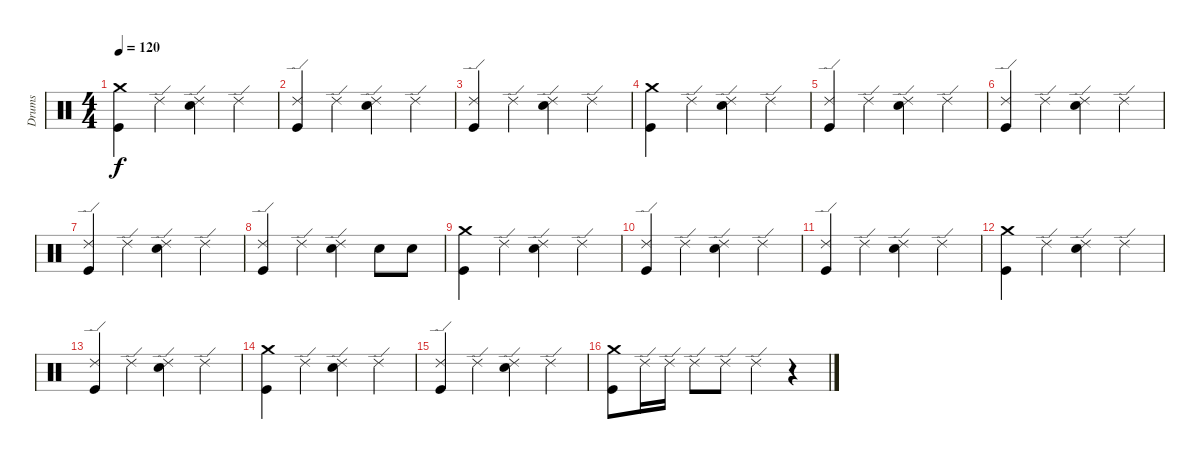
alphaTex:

\track ("Drums" "Drums") {instrument percussion}
\staff {score}
\articulation defaults
\ts (4 4)
\tempo 120
\clef neutral
\ks c
("Crash medium (hit)" "Kick (hit)").4{dy f} "Ride (edge) 2".4 ("Ride (edge) 2" "Snare (hit) 2").4 "Ride (edge) 2".4 |
("Ride (edge) 2" "Kick (hit)").4 "Ride (edge) 2".4 ("Ride (edge) 2" "Snare (hit) 2").4 "Ride (edge) 2".4 |
("Ride (edge) 2" "Kick (hit)").4 "Ride (edge) 2".4 ("Ride (edge) 2" "Snare (hit) 2").4 "Ride (edge) 2".4 |
("Crash medium (hit)" "Kick (hit)").4 "Ride (edge) 2".4 ("Ride (edge) 2" "Snare (hit) 2").4 "Ride (edge) 2".4 |
("Ride (edge) 2" "Kick (hit)").4 "Ride (edge) 2".4 ("Ride (edge) 2" "Snare (hit) 2").4 "Ride (edge) 2".4 |
("Ride (edge) 2" "Kick (hit)").4 "Ride (edge) 2".4 ("Ride (edge) 2" "Snare (hit) 2").4 "Ride (edge) 2".4 |
("Ride (edge) 2" "Kick (hit)").4 "Ride (edge) 2".4 ("Ride (edge) 2" "Snare (hit) 2").4 "Ride (edge) 2".4 |
("Ride (edge) 2" "Kick (hit)").4 "Ride (edge) 2".4 ("Snare (hit) 2" "Ride (edge) 2").4 "Snare (hit) 2".8 "Snare (hit) 2".8 |
("Crash medium (hit)" "Kick (hit)").4 "Ride (edge) 2".4 ("Ride (edge) 2" "Snare (hit) 2").4 "Ride (edge) 2".4 |
("Kick (hit)" "Ride (edge) 2").4 "Ride (edge) 2".4 ("Snare (hit) 2" "Ride (edge) 2").4 "Ride (edge) 2".4 |
("Kick (hit)" "Ride (edge) 2").4 "Ride (edge) 2".4 ("Snare (hit) 2" "Ride (edge) 2").4 "Ride (edge) 2".4 |
("Kick (hit)" "Crash medium (hit)").4 "Ride (edge) 2".4 ("Snare (hit) 2" "Ride (edge) 2").4 "Ride (edge) 2".4 |
("Kick (hit)" "Ride (edge) 2").4 "Ride (edge) 2".4 ("Snare (hit) 2" "Ride (edge) 2").4 "Ride (edge) 2".4 |
("Kick (hit)" "Crash medium (hit)").4 "Ride (edge) 2".4 ("Snare (hit) 2" "Ride (edge) 2").4 "Ride (edge) 2".4 |
("Kick (hit)" "Ride (edge) 2").4 "Ride (edge) 2".4 ("Snare (hit) 2" "Ride (edge) 2").4 "Ride (edge) 2".4 |
("Crash medium (hit)" "Kick (hit)").8 "Ride (edge) 2".16 "Ride (edge) 2".16 "Ride (edge) 2".8 "Ride (edge) 2".8 "Ride (edge) 2".4 r.4
